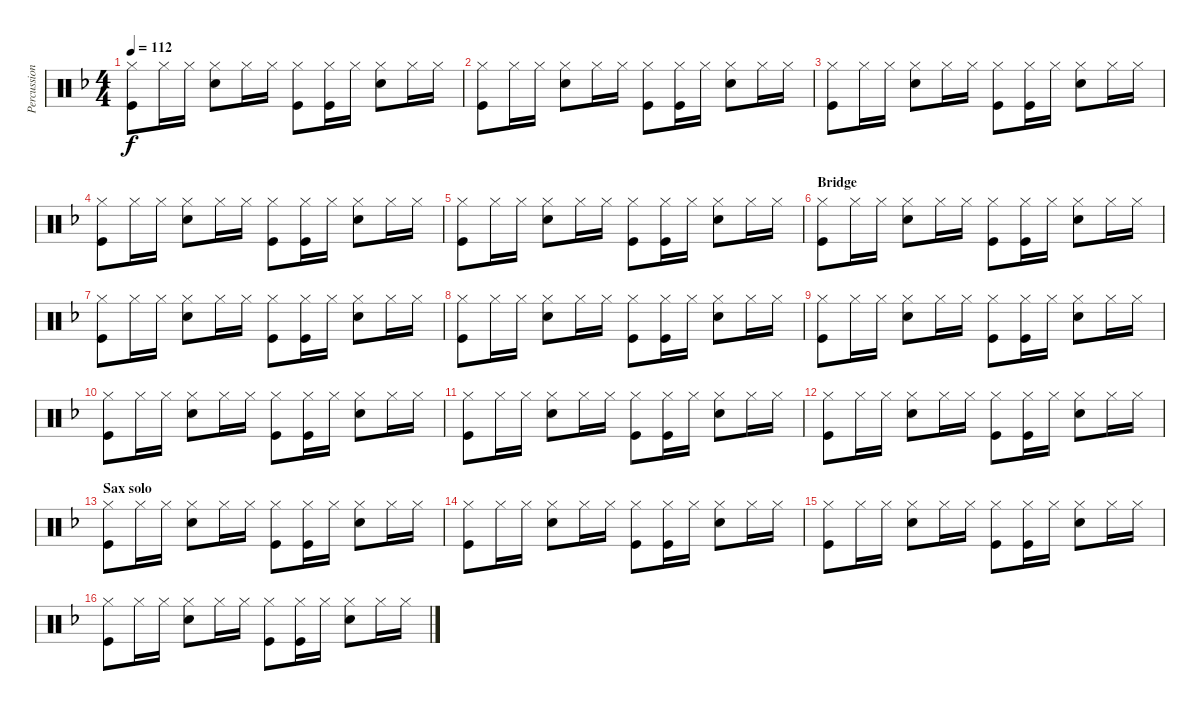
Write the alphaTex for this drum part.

\track ("Percussion" "Percussion") {instrument percussion}
\staff {score}
\articulation defaults
\ts (4 4)
\tempo 112
\clef neutral
\ks f
("Hi-Hat (closed)" "Kick (hit)").8{dy f} "Hi-Hat (closed)".16 "Hi-Hat (closed)".16 ("Hi-Hat (closed)" "Snare (hit) 2").8 "Hi-Hat (closed)".16 "Hi-Hat (closed)".16 ("Hi-Hat (closed)" "Kick (hit)").8 ("Hi-Hat (closed)" "Kick (hit)").16 "Hi-Hat (closed)".16 ("Hi-Hat (closed)" "Snare (hit) 2").8 "Hi-Hat (closed)".16 "Hi-Hat (closed)".16 |
("Hi-Hat (closed)" "Kick (hit)").8 "Hi-Hat (closed)".16 "Hi-Hat (closed)".16 ("Hi-Hat (closed)" "Snare (hit) 2").8 "Hi-Hat (closed)".16 "Hi-Hat (closed)".16 ("Hi-Hat (closed)" "Kick (hit)").8 ("Hi-Hat (closed)" "Kick (hit)").16 "Hi-Hat (closed)".16 ("Hi-Hat (closed)" "Snare (hit) 2").8 "Hi-Hat (closed)".16 "Hi-Hat (closed)".16 |
("Hi-Hat (closed)" "Kick (hit)").8 "Hi-Hat (closed)".16 "Hi-Hat (closed)".16 ("Hi-Hat (closed)" "Snare (hit) 2").8 "Hi-Hat (closed)".16 "Hi-Hat (closed)".16 ("Hi-Hat (closed)" "Kick (hit)").8 ("Hi-Hat (closed)" "Kick (hit)").16 "Hi-Hat (closed)".16 ("Hi-Hat (closed)" "Snare (hit) 2").8 "Hi-Hat (closed)".16 "Hi-Hat (closed)".16 |
("Hi-Hat (closed)" "Kick (hit)").8 "Hi-Hat (closed)".16 "Hi-Hat (closed)".16 ("Hi-Hat (closed)" "Snare (hit) 2").8 "Hi-Hat (closed)".16 "Hi-Hat (closed)".16 ("Hi-Hat (closed)" "Kick (hit)").8 ("Hi-Hat (closed)" "Kick (hit)").16 "Hi-Hat (closed)".16 ("Hi-Hat (closed)" "Snare (hit) 2").8 "Hi-Hat (closed)".16 "Hi-Hat (closed)".16 |
("Hi-Hat (closed)" "Kick (hit)").8 "Hi-Hat (closed)".16 "Hi-Hat (closed)".16 ("Hi-Hat (closed)" "Snare (hit) 2").8 "Hi-Hat (closed)".16 "Hi-Hat (closed)".16 ("Hi-Hat (closed)" "Kick (hit)").8 ("Hi-Hat (closed)" "Kick (hit)").16 "Hi-Hat (closed)".16 ("Hi-Hat (closed)" "Snare (hit) 2").8 "Hi-Hat (closed)".16 "Hi-Hat (closed)".16 |
\section ("" "Bridge")
("Hi-Hat (closed)" "Kick (hit)").8 "Hi-Hat (closed)".16 "Hi-Hat (closed)".16 ("Hi-Hat (closed)" "Snare (hit) 2").8 "Hi-Hat (closed)".16 "Hi-Hat (closed)".16 ("Hi-Hat (closed)" "Kick (hit)").8 ("Hi-Hat (closed)" "Kick (hit)").16 "Hi-Hat (closed)".16 ("Hi-Hat (closed)" "Snare (hit) 2").8 "Hi-Hat (closed)".16 "Hi-Hat (closed)".16 |
("Hi-Hat (closed)" "Kick (hit)").8 "Hi-Hat (closed)".16 "Hi-Hat (closed)".16 ("Hi-Hat (closed)" "Snare (hit) 2").8 "Hi-Hat (closed)".16 "Hi-Hat (closed)".16 ("Hi-Hat (closed)" "Kick (hit)").8 ("Hi-Hat (closed)" "Kick (hit)").16 "Hi-Hat (closed)".16 ("Hi-Hat (closed)" "Snare (hit) 2").8 "Hi-Hat (closed)".16 "Hi-Hat (closed)".16 |
("Hi-Hat (closed)" "Kick (hit)").8 "Hi-Hat (closed)".16 "Hi-Hat (closed)".16 ("Hi-Hat (closed)" "Snare (hit) 2").8 "Hi-Hat (closed)".16 "Hi-Hat (closed)".16 ("Hi-Hat (closed)" "Kick (hit)").8 ("Hi-Hat (closed)" "Kick (hit)").16 "Hi-Hat (closed)".16 ("Hi-Hat (closed)" "Snare (hit) 2").8 "Hi-Hat (closed)".16 "Hi-Hat (closed)".16 |
("Hi-Hat (closed)" "Kick (hit)").8 "Hi-Hat (closed)".16 "Hi-Hat (closed)".16 ("Hi-Hat (closed)" "Snare (hit) 2").8 "Hi-Hat (closed)".16 "Hi-Hat (closed)".16 ("Hi-Hat (closed)" "Kick (hit)").8 ("Hi-Hat (closed)" "Kick (hit)").16 "Hi-Hat (closed)".16 ("Hi-Hat (closed)" "Snare (hit) 2").8 "Hi-Hat (closed)".16 "Hi-Hat (closed)".16 |
("Hi-Hat (closed)" "Kick (hit)").8 "Hi-Hat (closed)".16 "Hi-Hat (closed)".16 ("Hi-Hat (closed)" "Snare (hit) 2").8 "Hi-Hat (closed)".16 "Hi-Hat (closed)".16 ("Hi-Hat (closed)" "Kick (hit)").8 ("Hi-Hat (closed)" "Kick (hit)").16 "Hi-Hat (closed)".16 ("Hi-Hat (closed)" "Snare (hit) 2").8 "Hi-Hat (closed)".16 "Hi-Hat (closed)".16 |
("Hi-Hat (closed)" "Kick (hit)").8 "Hi-Hat (closed)".16 "Hi-Hat (closed)".16 ("Hi-Hat (closed)" "Snare (hit) 2").8 "Hi-Hat (closed)".16 "Hi-Hat (closed)".16 ("Hi-Hat (closed)" "Kick (hit)").8 ("Hi-Hat (closed)" "Kick (hit)").16 "Hi-Hat (closed)".16 ("Hi-Hat (closed)" "Snare (hit) 2").8 "Hi-Hat (closed)".16 "Hi-Hat (closed)".16 |
("Hi-Hat (closed)" "Kick (hit)").8 "Hi-Hat (closed)".16 "Hi-Hat (closed)".16 ("Hi-Hat (closed)" "Snare (hit) 2").8 "Hi-Hat (closed)".16 "Hi-Hat (closed)".16 ("Hi-Hat (closed)" "Kick (hit)").8 ("Hi-Hat (closed)" "Kick (hit)").16 "Hi-Hat (closed)".16 ("Hi-Hat (closed)" "Snare (hit) 2").8 "Hi-Hat (closed)".16 "Hi-Hat (closed)".16 |
\section ("" "Sax solo")
("Hi-Hat (closed)" "Kick (hit)").8 "Hi-Hat (closed)".16 "Hi-Hat (closed)".16 ("Hi-Hat (closed)" "Snare (hit) 2").8 "Hi-Hat (closed)".16 "Hi-Hat (closed)".16 ("Hi-Hat (closed)" "Kick (hit)").8 ("Hi-Hat (closed)" "Kick (hit)").16 "Hi-Hat (closed)".16 ("Hi-Hat (closed)" "Snare (hit) 2").8 "Hi-Hat (closed)".16 "Hi-Hat (closed)".16 |
("Hi-Hat (closed)" "Kick (hit)").8 "Hi-Hat (closed)".16 "Hi-Hat (closed)".16 ("Hi-Hat (closed)" "Snare (hit) 2").8 "Hi-Hat (closed)".16 "Hi-Hat (closed)".16 ("Hi-Hat (closed)" "Kick (hit)").8 ("Hi-Hat (closed)" "Kick (hit)").16 "Hi-Hat (closed)".16 ("Hi-Hat (closed)" "Snare (hit) 2").8 "Hi-Hat (closed)".16 "Hi-Hat (closed)".16 |
("Hi-Hat (closed)" "Kick (hit)").8 "Hi-Hat (closed)".16 "Hi-Hat (closed)".16 ("Hi-Hat (closed)" "Snare (hit) 2").8 "Hi-Hat (closed)".16 "Hi-Hat (closed)".16 ("Hi-Hat (closed)" "Kick (hit)").8 ("Hi-Hat (closed)" "Kick (hit)").16 "Hi-Hat (closed)".16 ("Hi-Hat (closed)" "Snare (hit) 2").8 "Hi-Hat (closed)".16 "Hi-Hat (closed)".16 |
("Hi-Hat (closed)" "Kick (hit)").8 "Hi-Hat (closed)".16 "Hi-Hat (closed)".16 ("Hi-Hat (closed)" "Snare (hit) 2").8 "Hi-Hat (closed)".16 "Hi-Hat (closed)".16 ("Hi-Hat (closed)" "Kick (hit)").8 ("Hi-Hat (closed)" "Kick (hit)").16 "Hi-Hat (closed)".16 ("Hi-Hat (closed)" "Snare (hit) 2").8 "Hi-Hat (closed)".16 "Hi-Hat (closed)".16
